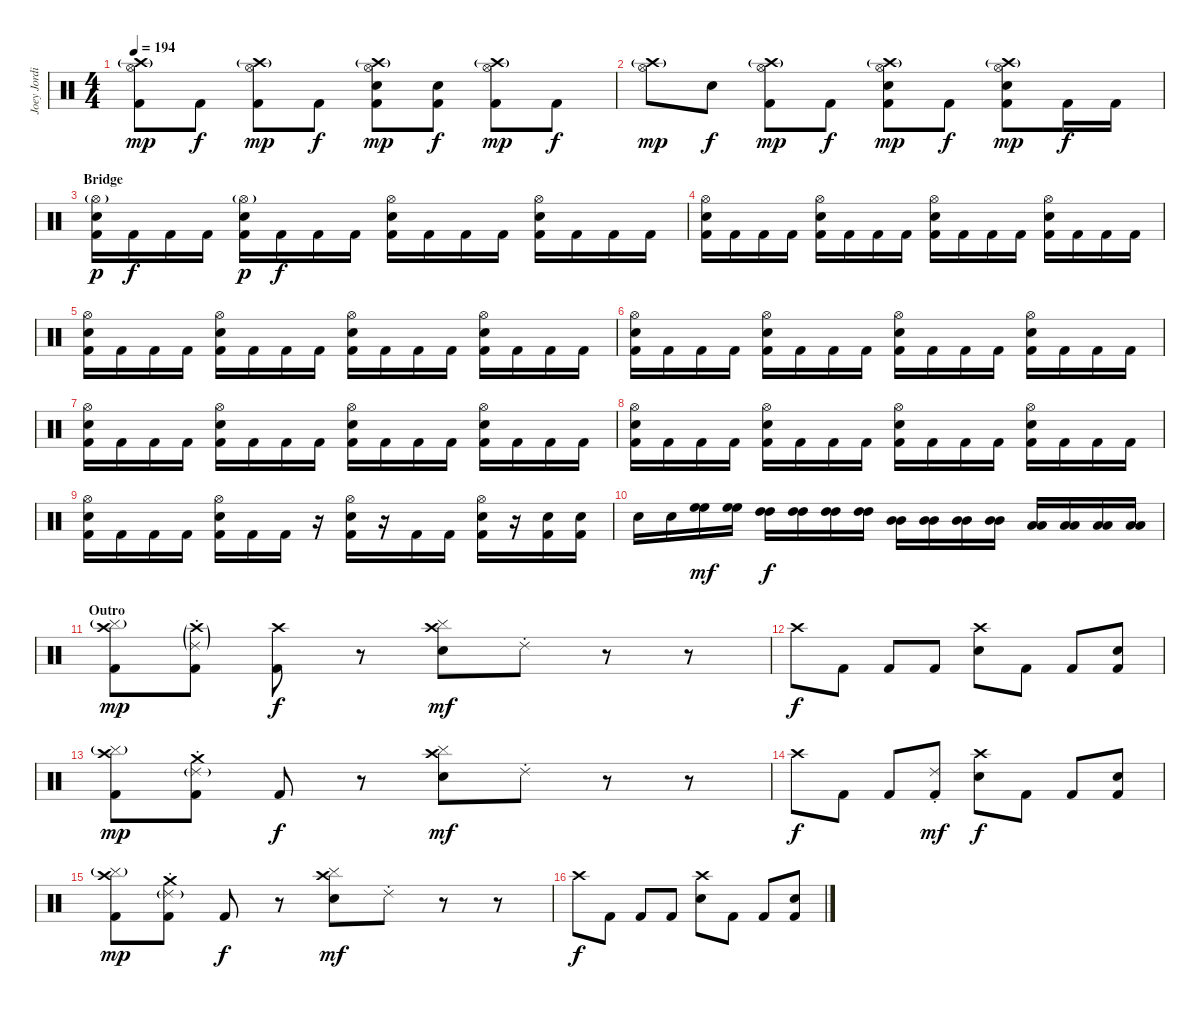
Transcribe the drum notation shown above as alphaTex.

\track ("Joey Jordison" "Joey Jordi") {instrument percussion}
\staff {score}
\articulation defaults
\ts (4 4)
\tempo 194
\clef neutral
\ks c
("Hi-Hat (open)" "Crash high (hit)"{g} "Kick (hit) 2").8{dy mp} "Kick (hit) 2".8{dy f} ("Hi-Hat (open)" "Crash high (hit)"{g} "Kick (hit) 2").8{dy mp} "Kick (hit) 2".8{dy f} ("Hi-Hat (open)" "Crash high (hit)"{g} "Snare (hit) 2" "Kick (hit) 2").8{dy mp} ("Snare (hit) 2" "Kick (hit) 2").8{dy f} ("Hi-Hat (open)" "Crash high (hit)"{g} "Kick (hit) 2").8{dy mp} "Kick (hit) 2".8{dy f} |
("Hi-Hat (open)" "Crash high (hit)"{g}).8{dy mp} "Snare (hit) 2".8{dy f} ("Hi-Hat (open)" "Crash high (hit)"{g} "Kick (hit) 2").8{dy mp} "Kick (hit) 2".8{dy f} ("Hi-Hat (open)" "Crash high (hit)"{g} "Snare (hit) 2" "Kick (hit) 2").8{dy mp} "Kick (hit) 2".8{dy f} ("Hi-Hat (open)" "Crash high (hit)"{g} "Snare (hit) 2" "Kick (hit) 2").8{dy mp} "Kick (hit) 2".16{dy f} "Kick (hit) 2".16 |
\section ("" "Bridge")
("Hi-Hat (open)"{g} "Snare (hit) 2" "Kick (hit) 2").16{dy p} "Kick (hit) 2".16{dy f} "Kick (hit) 2".16 "Kick (hit) 2".16 ("Hi-Hat (open)"{g} "Snare (hit) 2" "Kick (hit) 2").16{dy p} "Kick (hit) 2".16{dy f} "Kick (hit) 2".16 "Kick (hit) 2".16 ("Hi-Hat (open)" "Snare (hit) 2" "Kick (hit) 2").16 "Kick (hit) 2".16 "Kick (hit) 2".16 "Kick (hit) 2".16 ("Hi-Hat (open)" "Snare (hit) 2" "Kick (hit) 2").16 "Kick (hit) 2".16 "Kick (hit) 2".16 "Kick (hit) 2".16 |
("Hi-Hat (open)" "Snare (hit) 2" "Kick (hit) 2").16 "Kick (hit) 2".16 "Kick (hit) 2".16 "Kick (hit) 2".16 ("Hi-Hat (open)" "Snare (hit) 2" "Kick (hit) 2").16 "Kick (hit) 2".16 "Kick (hit) 2".16 "Kick (hit) 2".16 ("Hi-Hat (open)" "Snare (hit) 2" "Kick (hit) 2").16 "Kick (hit) 2".16 "Kick (hit) 2".16 "Kick (hit) 2".16 ("Hi-Hat (open)" "Snare (hit) 2" "Kick (hit) 2").16 "Kick (hit) 2".16 "Kick (hit) 2".16 "Kick (hit) 2".16 |
("Hi-Hat (open)" "Snare (hit) 2" "Kick (hit) 2").16 "Kick (hit) 2".16 "Kick (hit) 2".16 "Kick (hit) 2".16 ("Hi-Hat (open)" "Snare (hit) 2" "Kick (hit) 2").16 "Kick (hit) 2".16 "Kick (hit) 2".16 "Kick (hit) 2".16 ("Hi-Hat (open)" "Snare (hit) 2" "Kick (hit) 2").16 "Kick (hit) 2".16 "Kick (hit) 2".16 "Kick (hit) 2".16 ("Hi-Hat (open)" "Snare (hit) 2" "Kick (hit) 2").16 "Kick (hit) 2".16 "Kick (hit) 2".16 "Kick (hit) 2".16 |
("Hi-Hat (open)" "Snare (hit) 2" "Kick (hit) 2").16 "Kick (hit) 2".16 "Kick (hit) 2".16 "Kick (hit) 2".16 ("Hi-Hat (open)" "Snare (hit) 2" "Kick (hit) 2").16 "Kick (hit) 2".16 "Kick (hit) 2".16 "Kick (hit) 2".16 ("Hi-Hat (open)" "Snare (hit) 2" "Kick (hit) 2").16 "Kick (hit) 2".16 "Kick (hit) 2".16 "Kick (hit) 2".16 ("Hi-Hat (open)" "Snare (hit) 2" "Kick (hit) 2").16 "Kick (hit) 2".16 "Kick (hit) 2".16 "Kick (hit) 2".16 |
("Hi-Hat (open)" "Snare (hit) 2" "Kick (hit) 2").16 "Kick (hit) 2".16 "Kick (hit) 2".16 "Kick (hit) 2".16 ("Hi-Hat (open)" "Snare (hit) 2" "Kick (hit) 2").16 "Kick (hit) 2".16 "Kick (hit) 2".16 "Kick (hit) 2".16 ("Hi-Hat (open)" "Snare (hit) 2" "Kick (hit) 2").16 "Kick (hit) 2".16 "Kick (hit) 2".16 "Kick (hit) 2".16 ("Hi-Hat (open)" "Snare (hit) 2" "Kick (hit) 2").16 "Kick (hit) 2".16 "Kick (hit) 2".16 "Kick (hit) 2".16 |
("Hi-Hat (open)" "Snare (hit) 2" "Kick (hit) 2").16 "Kick (hit) 2".16 "Kick (hit) 2".16 "Kick (hit) 2".16 ("Hi-Hat (open)" "Snare (hit) 2" "Kick (hit) 2").16 "Kick (hit) 2".16 "Kick (hit) 2".16 "Kick (hit) 2".16 ("Hi-Hat (open)" "Snare (hit) 2" "Kick (hit) 2").16 "Kick (hit) 2".16 "Kick (hit) 2".16 "Kick (hit) 2".16 ("Hi-Hat (open)" "Snare (hit) 2" "Kick (hit) 2").16 "Kick (hit) 2".16 "Kick (hit) 2".16 "Kick (hit) 2".16 |
("Hi-Hat (open)" "Snare (hit) 2" "Kick (hit) 2").16 "Kick (hit) 2".16 "Kick (hit) 2".16 "Kick (hit) 2".16 ("Hi-Hat (open)" "Snare (hit) 2" "Kick (hit) 2").16 "Kick (hit) 2".16 "Kick (hit) 2".16 r.16 ("Hi-Hat (open)" "Snare (hit) 2" "Kick (hit) 2").16 r.16 "Kick (hit) 2".16 "Kick (hit) 2".16 ("Hi-Hat (open)" "Snare (hit) 2" "Kick (hit) 2").16 r.16 ("Snare (hit) 2" "Kick (hit) 2").16 ("Snare (hit) 2" "Kick (hit) 2").16 |
"Snare (hit) 2".16 "Snare (hit) 2".16 ("High Floor Tom (hit)" "High Floor Tom (hit)").16{dy mf} ("High Floor Tom (hit)" "High Floor Tom (hit)").16 ("High Tom (hit)" "High Tom (hit)").16{dy f} ("High Tom (hit)" "High Tom (hit)").16 ("High Tom (hit)" "High Tom (hit)").16 ("High Tom (hit)" "High Tom (hit)").16 ("Mid Tom (hit)" "Mid Tom (hit)").16 ("Mid Tom (hit)" "Mid Tom (hit)").16 ("Mid Tom (hit)" "Mid Tom (hit)").16 ("Mid Tom (hit)" "Mid Tom (hit)").16 ("Low Tom (hit)" "Low Tom (hit)").16 ("Low Tom (hit)" "Low Tom (hit)").16 ("Low Tom (hit)" "Low Tom (hit)").16 ("Low Tom (hit)" "Low Tom (hit)").16 |
\section ("" "Outro")
("Crash high (hit)" "Cymbal (hit)"{g} "Kick (hit) 2").8{dy mp} ("Crash high (hit)"{g} "Ride (choke) 2"{g} "Kick (hit) 2").8 ("Crash high (hit)" "Kick (hit) 2").8{dy f} r.8 ("Crash high (hit)" "Cymbal (hit)" "Snare (hit) 2").8{dy mf} "Ride (choke) 2".8 r.8 r.8 |
"Crash high (hit)".8{dy f} "Kick (hit) 2".8 "Kick (hit) 2".8 "Kick (hit) 2".8 ("Crash high (hit)" "Snare (hit) 2").8 "Kick (hit) 2".8 "Kick (hit) 2".8 ("Snare (hit) 2" "Kick (hit) 2").8 |
("Crash high (hit)" "Cymbal (hit)"{g} "Kick (hit) 2").8{dy mp} ("Crash medium (hit)" "Ride (choke) 2"{g} "Kick (hit) 2").8 "Kick (hit) 2".8{dy f} r.8 ("Crash high (hit)" "Cymbal (hit)" "Snare (hit) 2").8{dy mf} "Ride (choke) 2".8 r.8 r.8 |
"Crash high (hit)".8{dy f} "Kick (hit) 2".8 "Kick (hit) 2".8 ("Ride (choke) 2" "Kick (hit) 2").8{dy mf} ("Crash high (hit)" "Snare (hit) 2").8{dy f} "Kick (hit) 2".8 "Kick (hit) 2".8 ("Snare (hit) 2" "Kick (hit) 2").8 |
("Crash high (hit)" "Cymbal (hit)"{g} "Kick (hit) 2").8{dy mp} ("Crash medium (hit)" "Ride (choke) 2"{g} "Kick (hit) 2").8 "Kick (hit) 2".8{dy f} r.8 ("Crash high (hit)" "Cymbal (hit)" "Snare (hit) 2").8{dy mf} "Ride (choke) 2".8 r.8 r.8 |
"Crash high (hit)".8{dy f} "Kick (hit) 2".8 "Kick (hit) 2".8 "Kick (hit) 2".8 ("Crash high (hit)" "Snare (hit) 2").8 "Kick (hit) 2".8 "Kick (hit) 2".8 ("Snare (hit) 2" "Kick (hit) 2").8
